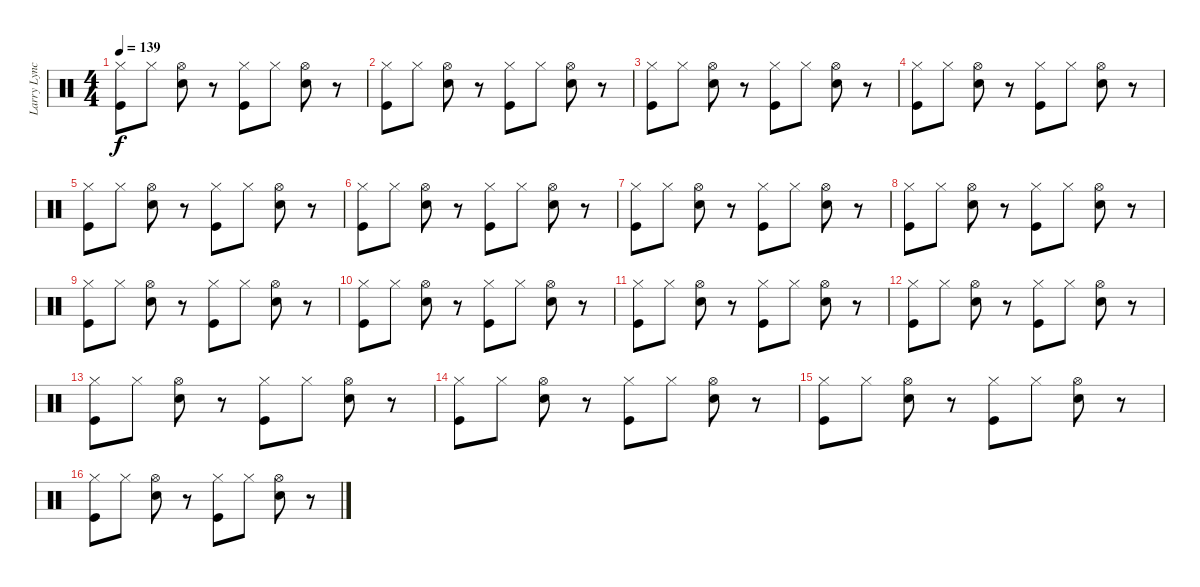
\track ("Larry Lynch" "Larry Lync") {instrument percussion}
\staff {score}
\articulation defaults
\ts (4 4)
\tempo 139
\clef neutral
\ks c
("Hi-Hat (closed)" "Kick (hit)").8{dy f} "Hi-Hat (closed)".8 ("Hi-Hat (open)" "Electric Snare (hit)").8 r.8 ("Hi-Hat (closed)" "Kick (hit)").8 "Hi-Hat (closed)".8 ("Hi-Hat (open)" "Electric Snare (hit)").8 r.8 |
("Hi-Hat (closed)" "Kick (hit)").8 "Hi-Hat (closed)".8 ("Hi-Hat (open)" "Electric Snare (hit)").8 r.8 ("Hi-Hat (closed)" "Kick (hit)").8 "Hi-Hat (closed)".8 ("Hi-Hat (open)" "Electric Snare (hit)").8 r.8 |
("Hi-Hat (closed)" "Kick (hit)").8 "Hi-Hat (closed)".8 ("Hi-Hat (open)" "Electric Snare (hit)").8 r.8 ("Hi-Hat (closed)" "Kick (hit)").8 "Hi-Hat (closed)".8 ("Hi-Hat (open)" "Electric Snare (hit)").8 r.8 |
("Hi-Hat (closed)" "Kick (hit)").8 "Hi-Hat (closed)".8 ("Hi-Hat (open)" "Electric Snare (hit)").8 r.8 ("Hi-Hat (closed)" "Kick (hit)").8 "Hi-Hat (closed)".8 ("Hi-Hat (open)" "Electric Snare (hit)").8 r.8 |
("Hi-Hat (closed)" "Kick (hit)").8 "Hi-Hat (closed)".8 ("Hi-Hat (open)" "Electric Snare (hit)").8 r.8 ("Hi-Hat (closed)" "Kick (hit)").8 "Hi-Hat (closed)".8 ("Hi-Hat (open)" "Electric Snare (hit)").8 r.8 |
("Hi-Hat (closed)" "Kick (hit)").8 "Hi-Hat (closed)".8 ("Hi-Hat (open)" "Electric Snare (hit)").8 r.8 ("Hi-Hat (closed)" "Kick (hit)").8 "Hi-Hat (closed)".8 ("Hi-Hat (open)" "Electric Snare (hit)").8 r.8 |
("Hi-Hat (closed)" "Kick (hit)").8 "Hi-Hat (closed)".8 ("Hi-Hat (open)" "Electric Snare (hit)").8 r.8 ("Hi-Hat (closed)" "Kick (hit)").8 "Hi-Hat (closed)".8 ("Hi-Hat (open)" "Electric Snare (hit)").8 r.8 |
("Hi-Hat (closed)" "Kick (hit)").8 "Hi-Hat (closed)".8 ("Hi-Hat (open)" "Electric Snare (hit)").8 r.8 ("Hi-Hat (closed)" "Kick (hit)").8 "Hi-Hat (closed)".8 ("Hi-Hat (open)" "Electric Snare (hit)").8 r.8 |
("Hi-Hat (closed)" "Kick (hit)").8 "Hi-Hat (closed)".8 ("Hi-Hat (open)" "Electric Snare (hit)").8 r.8 ("Hi-Hat (closed)" "Kick (hit)").8 "Hi-Hat (closed)".8 ("Hi-Hat (open)" "Electric Snare (hit)").8 r.8 |
("Hi-Hat (closed)" "Kick (hit)").8 "Hi-Hat (closed)".8 ("Hi-Hat (open)" "Electric Snare (hit)").8 r.8 ("Hi-Hat (closed)" "Kick (hit)").8 "Hi-Hat (closed)".8 ("Hi-Hat (open)" "Electric Snare (hit)").8 r.8 |
("Hi-Hat (closed)" "Kick (hit)").8 "Hi-Hat (closed)".8 ("Hi-Hat (open)" "Electric Snare (hit)").8 r.8 ("Hi-Hat (closed)" "Kick (hit)").8 "Hi-Hat (closed)".8 ("Hi-Hat (open)" "Electric Snare (hit)").8 r.8 |
("Hi-Hat (closed)" "Kick (hit)").8 "Hi-Hat (closed)".8 ("Hi-Hat (open)" "Electric Snare (hit)").8 r.8 ("Hi-Hat (closed)" "Kick (hit)").8 "Hi-Hat (closed)".8 ("Hi-Hat (open)" "Electric Snare (hit)").8 r.8 |
("Hi-Hat (closed)" "Kick (hit)").8 "Hi-Hat (closed)".8 ("Hi-Hat (open)" "Electric Snare (hit)").8 r.8 ("Hi-Hat (closed)" "Kick (hit)").8 "Hi-Hat (closed)".8 ("Hi-Hat (open)" "Electric Snare (hit)").8 r.8 |
("Hi-Hat (closed)" "Kick (hit)").8 "Hi-Hat (closed)".8 ("Hi-Hat (open)" "Electric Snare (hit)").8 r.8 ("Hi-Hat (closed)" "Kick (hit)").8 "Hi-Hat (closed)".8 ("Hi-Hat (open)" "Electric Snare (hit)").8 r.8 |
("Hi-Hat (closed)" "Kick (hit)").8 "Hi-Hat (closed)".8 ("Hi-Hat (open)" "Electric Snare (hit)").8 r.8 ("Hi-Hat (closed)" "Kick (hit)").8 "Hi-Hat (closed)".8 ("Hi-Hat (open)" "Electric Snare (hit)").8 r.8 |
("Hi-Hat (closed)" "Kick (hit)").8 "Hi-Hat (closed)".8 ("Hi-Hat (open)" "Electric Snare (hit)").8 r.8 ("Hi-Hat (closed)" "Kick (hit)").8 "Hi-Hat (closed)".8 ("Hi-Hat (open)" "Electric Snare (hit)").8 r.8
